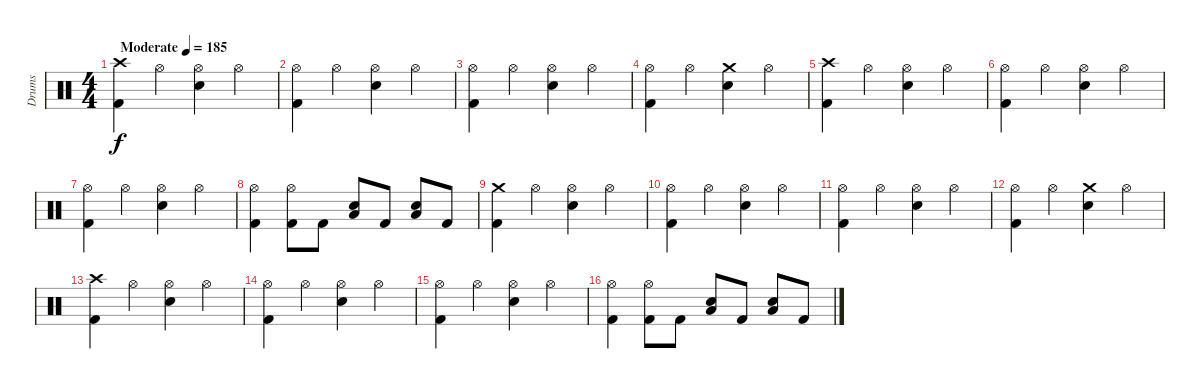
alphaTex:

\track ("Drums" "Drums") {instrument percussion}
\staff {score}
\articulation defaults
\ts (4 4)
\tempo (185 "Moderate")
\clef neutral
\ks c
("Crash high (hit)" "Kick (hit) 2").4{dy f} "Hi-Hat (open)".4 ("Hi-Hat (open)" "Electric Snare (hit)").4 "Hi-Hat (open)".4 |
("Hi-Hat (open)" "Kick (hit) 2").4 "Hi-Hat (open)".4 ("Hi-Hat (open)" "Electric Snare (hit)").4 "Hi-Hat (open)".4 |
("Hi-Hat (open)" "Kick (hit) 2").4 "Hi-Hat (open)".4 ("Hi-Hat (open)" "Electric Snare (hit)").4 "Hi-Hat (open)".4 |
("Hi-Hat (open)" "Kick (hit) 2").4 "Hi-Hat (open)".4 ("Crash medium (hit)" "Electric Snare (hit)").4 "Hi-Hat (open)".4 |
("Crash high (hit)" "Kick (hit) 2").4 "Hi-Hat (open)".4 ("Hi-Hat (open)" "Electric Snare (hit)").4 "Hi-Hat (open)".4 |
("Hi-Hat (open)" "Kick (hit) 2").4 "Hi-Hat (open)".4 ("Hi-Hat (open)" "Electric Snare (hit)").4 "Hi-Hat (open)".4 |
("Hi-Hat (open)" "Kick (hit) 2").4 "Hi-Hat (open)".4 ("Hi-Hat (open)" "Electric Snare (hit)").4 "Hi-Hat (open)".4 |
("Hi-Hat (open)" "Kick (hit) 2").4 ("Hi-Hat (open)" "Kick (hit) 2").8 "Kick (hit) 2".8 ("Electric Snare (hit)" "Low Floor Tom (hit)").8 "Kick (hit) 2".8 ("Electric Snare (hit)" "Low Floor Tom (hit)").8 "Kick (hit) 2".8 |
("Crash medium (hit)" "Kick (hit) 2").4 "Hi-Hat (open)".4 ("Hi-Hat (open)" "Electric Snare (hit)").4 "Hi-Hat (open)".4 |
("Hi-Hat (open)" "Kick (hit) 2").4 "Hi-Hat (open)".4 ("Hi-Hat (open)" "Electric Snare (hit)").4 "Hi-Hat (open)".4 |
("Hi-Hat (open)" "Kick (hit) 2").4 "Hi-Hat (open)".4 ("Hi-Hat (open)" "Electric Snare (hit)").4 "Hi-Hat (open)".4 |
("Hi-Hat (open)" "Kick (hit) 2").4 "Hi-Hat (open)".4 ("Crash medium (hit)" "Electric Snare (hit)").4 "Hi-Hat (open)".4 |
("Crash high (hit)" "Kick (hit) 2").4 "Hi-Hat (open)".4 ("Hi-Hat (open)" "Electric Snare (hit)").4 "Hi-Hat (open)".4 |
("Hi-Hat (open)" "Kick (hit) 2").4 "Hi-Hat (open)".4 ("Hi-Hat (open)" "Electric Snare (hit)").4 "Hi-Hat (open)".4 |
("Hi-Hat (open)" "Kick (hit) 2").4 "Hi-Hat (open)".4 ("Hi-Hat (open)" "Electric Snare (hit)").4 "Hi-Hat (open)".4 |
("Hi-Hat (open)" "Kick (hit) 2").4 ("Hi-Hat (open)" "Kick (hit) 2").8 "Kick (hit) 2".8 ("Electric Snare (hit)" "Low Floor Tom (hit)").8 "Kick (hit) 2".8 ("Electric Snare (hit)" "Low Floor Tom (hit)").8 "Kick (hit) 2".8
